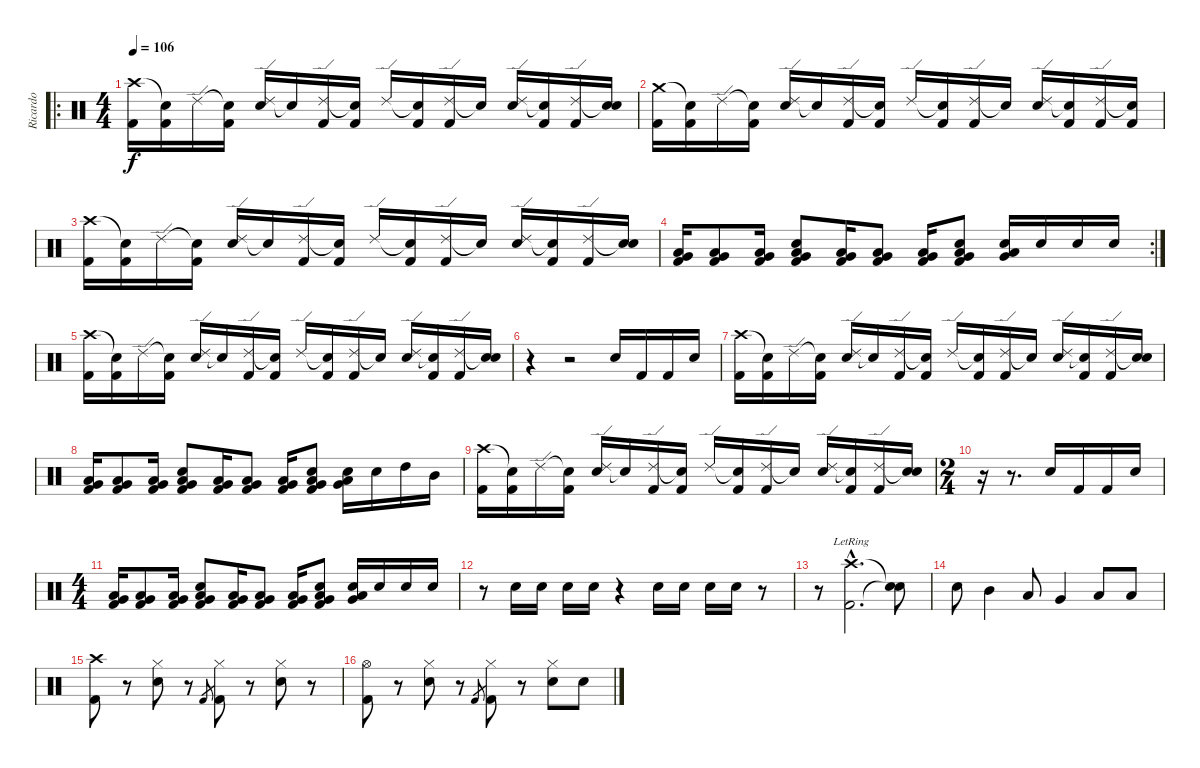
\track ("Ricardo" "Ricardo") {instrument percussion}
\staff {score}
\articulation defaults
\ro
\ts (4 4)
\tempo 106
\clef neutral
\ks c
("Crash high (hit)" "Kick (hit) 2").16{dy f} ("Snare (hit)"{t} "Kick (hit) 2").16 "Ride (edge) 2".16 ("Snare (hit)"{t} "Kick (hit) 2").16 ("Ride (edge) 2" "Electric Snare (hit)").16 "Snare (hit)"{t}.16 ("Ride (edge) 2" "Kick (hit) 2").16 ("Snare (hit)"{t} "Kick (hit) 2").16 "Ride (edge) 2".16 ("Snare (hit)"{t} "Kick (hit) 2").16 ("Ride (edge) 2" "Kick (hit) 2").16 "Snare (hit)"{t}.16 ("Ride (edge) 2" "Electric Snare (hit)").16 ("Snare (hit)"{t} "Kick (hit) 2").16 ("Ride (edge) 2" "Kick (hit) 2").16 ("Snare (hit)"{t} "Electric Snare (hit)").16 |
("Crash medium (hit)" "Kick (hit) 2").16 ("Snare (hit)"{t} "Kick (hit) 2").16 "Ride (edge) 2".16 ("Snare (hit)"{t} "Kick (hit) 2").16 ("Ride (edge) 2" "Electric Snare (hit)").16 "Snare (hit)"{t}.16 ("Ride (edge) 2" "Kick (hit) 2").16 ("Snare (hit)"{t} "Kick (hit) 2").16 "Ride (edge) 2".16 ("Snare (hit)"{t} "Kick (hit) 2").16 ("Ride (edge) 2" "Kick (hit) 2").16 "Snare (hit)"{t}.16 ("Ride (edge) 2" "Electric Snare (hit)").16 ("Snare (hit)"{t} "Kick (hit) 2").16 ("Ride (edge) 2" "Kick (hit) 2").16 ("Snare (hit)"{t} "Kick (hit) 2").16 |
("Crash high (hit)" "Kick (hit) 2").16 ("Snare (hit)"{t} "Kick (hit) 2").16 "Ride (edge) 2".16 ("Snare (hit)"{t} "Kick (hit) 2").16 ("Ride (edge) 2" "Electric Snare (hit)").16 "Snare (hit)"{t}.16 ("Ride (edge) 2" "Kick (hit) 2").16 ("Snare (hit)"{t} "Kick (hit) 2").16 "Ride (edge) 2".16 ("Snare (hit)"{t} "Kick (hit) 2").16 ("Ride (edge) 2" "Kick (hit) 2").16 "Snare (hit)"{t}.16 ("Ride (edge) 2" "Electric Snare (hit)").16 ("Snare (hit)"{t} "Kick (hit) 2").16 ("Ride (edge) 2" "Kick (hit) 2").16 ("Snare (hit)"{t} "Electric Snare (hit)").16 |
\rc 2
("Low Floor Tom (hit)" "Very Low Tom (hit)" "Kick (hit) 2").16 ("Low Floor Tom (hit)" "Very Low Tom (hit)" "Kick (hit) 2").8 ("Low Floor Tom (hit)" "Very Low Tom (hit)" "Kick (hit) 2").16 ("Low Floor Tom (hit)" "Very Low Tom (hit)" "Kick (hit) 2" "Electric Snare (hit)").8 ("Low Floor Tom (hit)" "Very Low Tom (hit)" "Kick (hit) 2").16 ("Low Floor Tom (hit)" "Very Low Tom (hit)" "Kick (hit) 2").8 ("Low Floor Tom (hit)" "Very Low Tom (hit)" "Kick (hit) 2").16 ("Low Floor Tom (hit)" "Very Low Tom (hit)" "Kick (hit) 2" "Electric Snare (hit)").8 ("Low Floor Tom (hit)" "Very Low Tom (hit)" "Electric Snare (hit)").16 "Electric Snare (hit)".16 "Electric Snare (hit)".16 "Electric Snare (hit)".16 |
("Crash high (hit)" "Kick (hit) 2").16 ("Snare (hit)"{t} "Kick (hit) 2").16 "Ride (edge) 2".16 ("Snare (hit)"{t} "Kick (hit) 2").16 ("Ride (edge) 2" "Electric Snare (hit)").16 "Snare (hit)"{t}.16 ("Ride (edge) 2" "Kick (hit) 2").16 ("Snare (hit)"{t} "Kick (hit) 2").16 "Ride (edge) 2".16 ("Snare (hit)"{t} "Kick (hit) 2").16 ("Ride (edge) 2" "Kick (hit) 2").16 "Snare (hit)"{t}.16 ("Ride (edge) 2" "Electric Snare (hit)").16 ("Snare (hit)"{t} "Kick (hit) 2").16 ("Ride (edge) 2" "Kick (hit) 2").16 ("Snare (hit)"{t} "Electric Snare (hit)").16 |
r.4 r.2 "Electric Snare (hit)".16 "Kick (hit) 2".16 "Kick (hit) 2".16 "Electric Snare (hit)".16 |
("Crash high (hit)" "Kick (hit) 2").16 ("Snare (hit)"{t} "Kick (hit) 2").16 "Ride (edge) 2".16 ("Snare (hit)"{t} "Kick (hit) 2").16 ("Ride (edge) 2" "Electric Snare (hit)").16 "Snare (hit)"{t}.16 ("Ride (edge) 2" "Kick (hit) 2").16 ("Snare (hit)"{t} "Kick (hit) 2").16 "Ride (edge) 2".16 ("Snare (hit)"{t} "Kick (hit) 2").16 ("Ride (edge) 2" "Kick (hit) 2").16 "Snare (hit)"{t}.16 ("Ride (edge) 2" "Electric Snare (hit)").16 ("Snare (hit)"{t} "Kick (hit) 2").16 ("Ride (edge) 2" "Kick (hit) 2").16 ("Snare (hit)"{t} "Electric Snare (hit)").16 |
("Low Floor Tom (hit)" "Very Low Tom (hit)" "Kick (hit) 2").16 ("Low Floor Tom (hit)" "Very Low Tom (hit)" "Kick (hit) 2").8 ("Low Floor Tom (hit)" "Very Low Tom (hit)" "Kick (hit) 2").16 ("Low Floor Tom (hit)" "Very Low Tom (hit)" "Kick (hit) 2" "Electric Snare (hit)").8 ("Low Floor Tom (hit)" "Very Low Tom (hit)" "Kick (hit) 2").16 ("Low Floor Tom (hit)" "Very Low Tom (hit)" "Kick (hit) 2").8 ("Low Floor Tom (hit)" "Very Low Tom (hit)" "Kick (hit) 2").16 ("Low Floor Tom (hit)" "Very Low Tom (hit)" "Kick (hit) 2" "Electric Snare (hit)").8 ("Low Floor Tom (hit)" "Very Low Tom (hit)" "Electric Snare (hit)").16 "Electric Snare (hit)".16 "High Tom (hit)".16 "Mid Tom (hit)".16 |
("Crash high (hit)" "Kick (hit) 2").16 ("Snare (hit)"{t} "Kick (hit) 2").16 "Ride (edge) 2".16 ("Snare (hit)"{t} "Kick (hit) 2").16 ("Ride (edge) 2" "Electric Snare (hit)").16 "Snare (hit)"{t}.16 ("Ride (edge) 2" "Kick (hit) 2").16 ("Snare (hit)"{t} "Kick (hit) 2").16 "Ride (edge) 2".16 ("Snare (hit)"{t} "Kick (hit) 2").16 ("Ride (edge) 2" "Kick (hit) 2").16 "Snare (hit)"{t}.16 ("Ride (edge) 2" "Electric Snare (hit)").16 ("Snare (hit)"{t} "Kick (hit) 2").16 ("Ride (edge) 2" "Kick (hit) 2").16 ("Snare (hit)"{t} "Electric Snare (hit)").16 |
\ts (2 4)
r.16 r.8{d} "Electric Snare (hit)".16 "Kick (hit) 2".16 "Kick (hit) 2".16 "Electric Snare (hit)".16 |
\ts (4 4)
("Low Floor Tom (hit)" "Very Low Tom (hit)" "Kick (hit) 2").16 ("Low Floor Tom (hit)" "Very Low Tom (hit)" "Kick (hit) 2").8 ("Low Floor Tom (hit)" "Very Low Tom (hit)" "Kick (hit) 2").16 ("Low Floor Tom (hit)" "Very Low Tom (hit)" "Kick (hit) 2" "Electric Snare (hit)").8 ("Low Floor Tom (hit)" "Very Low Tom (hit)" "Kick (hit) 2").16 ("Low Floor Tom (hit)" "Very Low Tom (hit)" "Kick (hit) 2").8 ("Low Floor Tom (hit)" "Very Low Tom (hit)" "Kick (hit) 2").16 ("Low Floor Tom (hit)" "Very Low Tom (hit)" "Kick (hit) 2" "Electric Snare (hit)").8 ("Low Floor Tom (hit)" "Very Low Tom (hit)" "Electric Snare (hit)").16 "Electric Snare (hit)".16 "Electric Snare (hit)".16 "Electric Snare (hit)".16 |
r.8 "Electric Snare (hit)".16 "Electric Snare (hit)".16 "Electric Snare (hit)".16 "Electric Snare (hit)".16 r.4 "Electric Snare (hit)".16 "Electric Snare (hit)".16 "Electric Snare (hit)".16 "Electric Snare (hit)".16 r.8 |
r.8 ("Crash high (hit)"{hac lr} "Kick (hit) 2"{hac lr}).2{d} ("Snare (hit)"{t} "Snare (hit)"{t}).8 |
"Snare (hit) 2".8 "Mid Tom (hit)".4 "Low Tom (hit)".8 "Very Low Tom (hit)".4 "Low Floor Tom (hit)".8 "Low Floor Tom (hit)".8 |
("Crash high (hit)" "Kick (hit) 2").8 r.8 ("Hi-Hat (closed)" "Snare (hit) 2").8 r.8 "Kick (hit) 2".8{gr} ("Hi-Hat (closed)" "Kick (hit) 2").8 r.8 ("Hi-Hat (closed)" "Snare (hit) 2").8 r.8 |
("Hi-Hat (open)" "Kick (hit) 2").8 r.8 ("Hi-Hat (closed)" "Snare (hit) 2").8 r.8 "Kick (hit) 2".8{gr} ("Hi-Hat (closed)" "Kick (hit) 2").8 r.8 ("Hi-Hat (closed)" "Snare (hit) 2").8 "Snare (hit) 2".8
